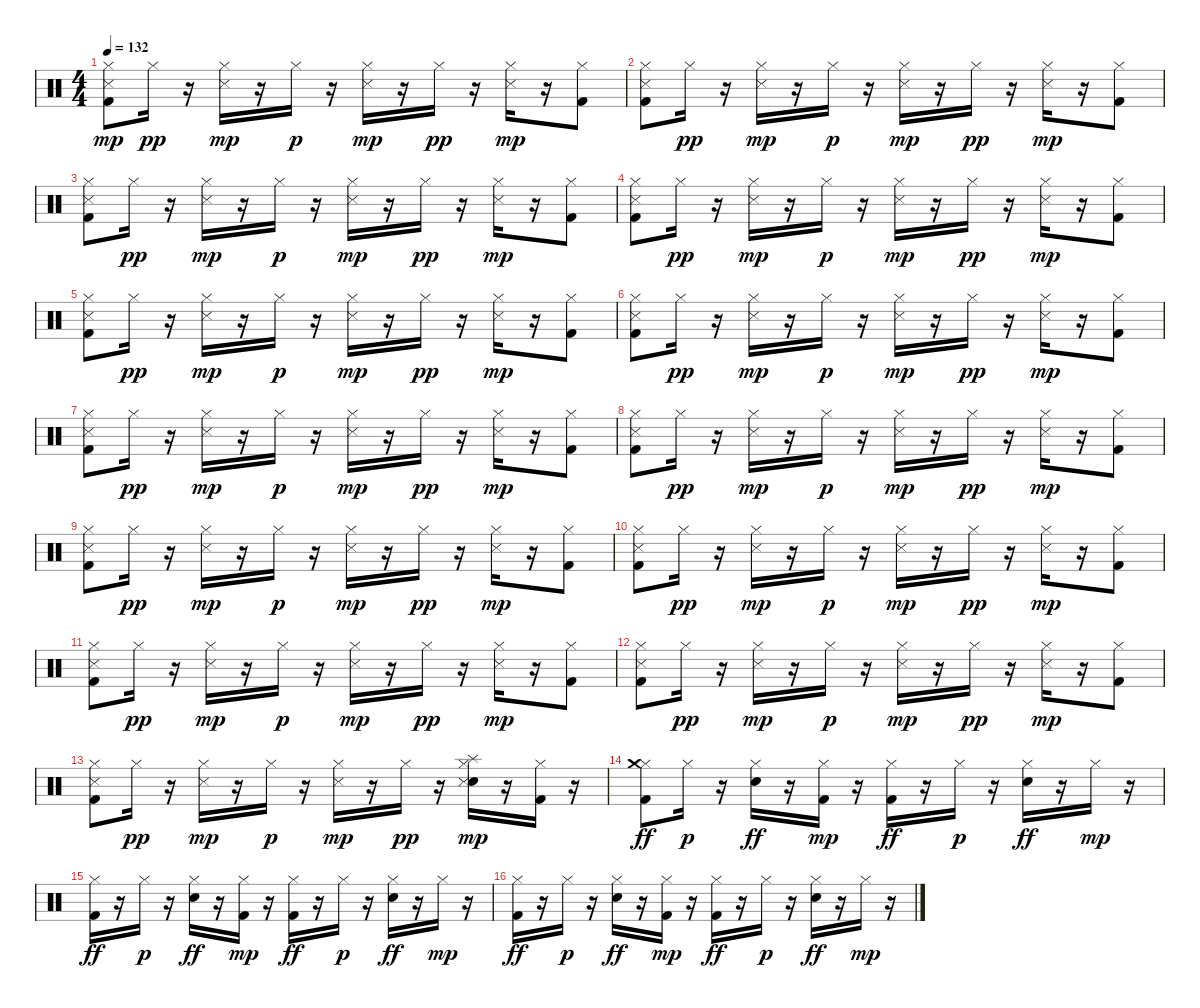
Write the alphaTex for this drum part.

\track "" {instrument percussion}
\staff {score}
\articulation defaults
\ts (4 4)
\tempo 132
\clef neutral
\ks c
("Snare (side stick) 3" "Hi-Hat (closed)" "Kick (hit) 2").8{dy mp} "Hi-Hat (closed)".16{dy pp} r.16 ("Snare (side stick) 3" "Hi-Hat (closed)").16{dy mp} r.16 "Hi-Hat (closed)".16{dy p} r.16 ("Snare (side stick) 3" "Hi-Hat (closed)").16{dy mp} r.16 "Hi-Hat (closed)".16{dy pp} r.16 ("Snare (side stick) 3" "Hi-Hat (closed)").16{dy mp} r.16 ("Hi-Hat (closed)" "Kick (hit) 2").8 |
("Snare (side stick) 3" "Hi-Hat (closed)" "Kick (hit) 2").8 "Hi-Hat (closed)".16{dy pp} r.16 ("Snare (side stick) 3" "Hi-Hat (closed)").16{dy mp} r.16 "Hi-Hat (closed)".16{dy p} r.16 ("Snare (side stick) 3" "Hi-Hat (closed)").16{dy mp} r.16 "Hi-Hat (closed)".16{dy pp} r.16 ("Snare (side stick) 3" "Hi-Hat (closed)").16{dy mp} r.16 ("Hi-Hat (closed)" "Kick (hit) 2").8 |
("Snare (side stick) 3" "Hi-Hat (closed)" "Kick (hit) 2").8 "Hi-Hat (closed)".16{dy pp} r.16 ("Snare (side stick) 3" "Hi-Hat (closed)").16{dy mp} r.16 "Hi-Hat (closed)".16{dy p} r.16 ("Snare (side stick) 3" "Hi-Hat (closed)").16{dy mp} r.16 "Hi-Hat (closed)".16{dy pp} r.16 ("Snare (side stick) 3" "Hi-Hat (closed)").16{dy mp} r.16 ("Hi-Hat (closed)" "Kick (hit) 2").8 |
("Snare (side stick) 3" "Hi-Hat (closed)" "Kick (hit) 2").8 "Hi-Hat (closed)".16{dy pp} r.16 ("Snare (side stick) 3" "Hi-Hat (closed)").16{dy mp} r.16 "Hi-Hat (closed)".16{dy p} r.16 ("Snare (side stick) 3" "Hi-Hat (closed)").16{dy mp} r.16 "Hi-Hat (closed)".16{dy pp} r.16 ("Snare (side stick) 3" "Hi-Hat (closed)").16{dy mp} r.16 ("Hi-Hat (closed)" "Kick (hit) 2").8 |
("Snare (side stick) 3" "Hi-Hat (closed)" "Kick (hit) 2").8 "Hi-Hat (closed)".16{dy pp} r.16 ("Snare (side stick) 3" "Hi-Hat (closed)").16{dy mp} r.16 "Hi-Hat (closed)".16{dy p} r.16 ("Snare (side stick) 3" "Hi-Hat (closed)").16{dy mp} r.16 "Hi-Hat (closed)".16{dy pp} r.16 ("Snare (side stick) 3" "Hi-Hat (closed)").16{dy mp} r.16 ("Hi-Hat (closed)" "Kick (hit) 2").8 |
("Snare (side stick) 3" "Hi-Hat (closed)" "Kick (hit) 2").8 "Hi-Hat (closed)".16{dy pp} r.16 ("Snare (side stick) 3" "Hi-Hat (closed)").16{dy mp} r.16 "Hi-Hat (closed)".16{dy p} r.16 ("Snare (side stick) 3" "Hi-Hat (closed)").16{dy mp} r.16 "Hi-Hat (closed)".16{dy pp} r.16 ("Snare (side stick) 3" "Hi-Hat (closed)").16{dy mp} r.16 ("Hi-Hat (closed)" "Kick (hit) 2").8 |
("Snare (side stick) 3" "Hi-Hat (closed)" "Kick (hit) 2").8 "Hi-Hat (closed)".16{dy pp} r.16 ("Snare (side stick) 3" "Hi-Hat (closed)").16{dy mp} r.16 "Hi-Hat (closed)".16{dy p} r.16 ("Snare (side stick) 3" "Hi-Hat (closed)").16{dy mp} r.16 "Hi-Hat (closed)".16{dy pp} r.16 ("Snare (side stick) 3" "Hi-Hat (closed)").16{dy mp} r.16 ("Hi-Hat (closed)" "Kick (hit) 2").8 |
("Snare (side stick) 3" "Hi-Hat (closed)" "Kick (hit) 2").8 "Hi-Hat (closed)".16{dy pp} r.16 ("Snare (side stick) 3" "Hi-Hat (closed)").16{dy mp} r.16 "Hi-Hat (closed)".16{dy p} r.16 ("Snare (side stick) 3" "Hi-Hat (closed)").16{dy mp} r.16 "Hi-Hat (closed)".16{dy pp} r.16 ("Snare (side stick) 3" "Hi-Hat (closed)").16{dy mp} r.16 ("Hi-Hat (closed)" "Kick (hit) 2").8 |
("Snare (side stick) 3" "Hi-Hat (closed)" "Kick (hit) 2").8 "Hi-Hat (closed)".16{dy pp} r.16 ("Snare (side stick) 3" "Hi-Hat (closed)").16{dy mp} r.16 "Hi-Hat (closed)".16{dy p} r.16 ("Snare (side stick) 3" "Hi-Hat (closed)").16{dy mp} r.16 "Hi-Hat (closed)".16{dy pp} r.16 ("Snare (side stick) 3" "Hi-Hat (closed)").16{dy mp} r.16 ("Hi-Hat (closed)" "Kick (hit) 2").8 |
("Snare (side stick) 3" "Hi-Hat (closed)" "Kick (hit) 2").8 "Hi-Hat (closed)".16{dy pp} r.16 ("Snare (side stick) 3" "Hi-Hat (closed)").16{dy mp} r.16 "Hi-Hat (closed)".16{dy p} r.16 ("Snare (side stick) 3" "Hi-Hat (closed)").16{dy mp} r.16 "Hi-Hat (closed)".16{dy pp} r.16 ("Snare (side stick) 3" "Hi-Hat (closed)").16{dy mp} r.16 ("Hi-Hat (closed)" "Kick (hit) 2").8 |
("Snare (side stick) 3" "Hi-Hat (closed)" "Kick (hit) 2").8 "Hi-Hat (closed)".16{dy pp} r.16 ("Snare (side stick) 3" "Hi-Hat (closed)").16{dy mp} r.16 "Hi-Hat (closed)".16{dy p} r.16 ("Snare (side stick) 3" "Hi-Hat (closed)").16{dy mp} r.16 "Hi-Hat (closed)".16{dy pp} r.16 ("Snare (side stick) 3" "Hi-Hat (closed)").16{dy mp} r.16 ("Hi-Hat (closed)" "Kick (hit) 2").8 |
("Snare (side stick) 3" "Hi-Hat (closed)" "Kick (hit) 2").8 "Hi-Hat (closed)".16{dy pp} r.16 ("Snare (side stick) 3" "Hi-Hat (closed)").16{dy mp} r.16 "Hi-Hat (closed)".16{dy p} r.16 ("Snare (side stick) 3" "Hi-Hat (closed)").16{dy mp} r.16 "Hi-Hat (closed)".16{dy pp} r.16 ("Snare (side stick) 3" "Hi-Hat (closed)").16{dy mp} r.16 ("Hi-Hat (closed)" "Kick (hit) 2").8 |
("Snare (side stick) 3" "Hi-Hat (closed)" "Kick (hit) 2").8 "Hi-Hat (closed)".16{dy pp} r.16 ("Snare (side stick) 3" "Hi-Hat (closed)").16{dy mp} r.16 "Hi-Hat (closed)".16{dy p} r.16 ("Snare (side stick) 3" "Hi-Hat (closed)").16{dy mp} r.16 "Hi-Hat (closed)".16{dy pp} r.16 ("Snare (hit) 2" "Splash (hit)" "Snare (side stick) 3" "Hi-Hat (closed)").16{dy mp} r.16 ("Hi-Hat (closed)" "Kick (hit) 2").16 r.16 |
("Hi-Hat (closed)" "Kick (hit) 2" "Crash medium (hit)").8{dy ff} "Hi-Hat (closed)".16{dy p} r.16 ("Hi-Hat (closed)" "Snare (hit) 2").16{dy ff} r.16 ("Kick (hit) 2" "Hi-Hat (closed)").16{dy mp} r.16 ("Hi-Hat (closed)" "Kick (hit) 2").16{dy ff} r.16 "Hi-Hat (closed)".16{dy p} r.16 ("Hi-Hat (closed)" "Snare (hit) 2").16{dy ff} r.16 "Hi-Hat (closed)".16{dy mp} r.16 |
("Hi-Hat (closed)" "Kick (hit) 2").16{dy ff} r.16 "Hi-Hat (closed)".16{dy p} r.16 ("Hi-Hat (closed)" "Snare (hit) 2").16{dy ff} r.16 ("Kick (hit) 2" "Hi-Hat (closed)").16{dy mp} r.16 ("Hi-Hat (closed)" "Kick (hit) 2").16{dy ff} r.16 "Hi-Hat (closed)".16{dy p} r.16 ("Hi-Hat (closed)" "Snare (hit) 2").16{dy ff} r.16 "Hi-Hat (closed)".16{dy mp} r.16 |
("Hi-Hat (closed)" "Kick (hit) 2").16{dy ff} r.16 "Hi-Hat (closed)".16{dy p} r.16 ("Hi-Hat (closed)" "Snare (hit) 2").16{dy ff} r.16 ("Kick (hit) 2" "Hi-Hat (closed)").16{dy mp} r.16 ("Hi-Hat (closed)" "Kick (hit) 2").16{dy ff} r.16 "Hi-Hat (closed)".16{dy p} r.16 ("Hi-Hat (closed)" "Snare (hit) 2").16{dy ff} r.16 "Hi-Hat (closed)".16{dy mp} r.16
